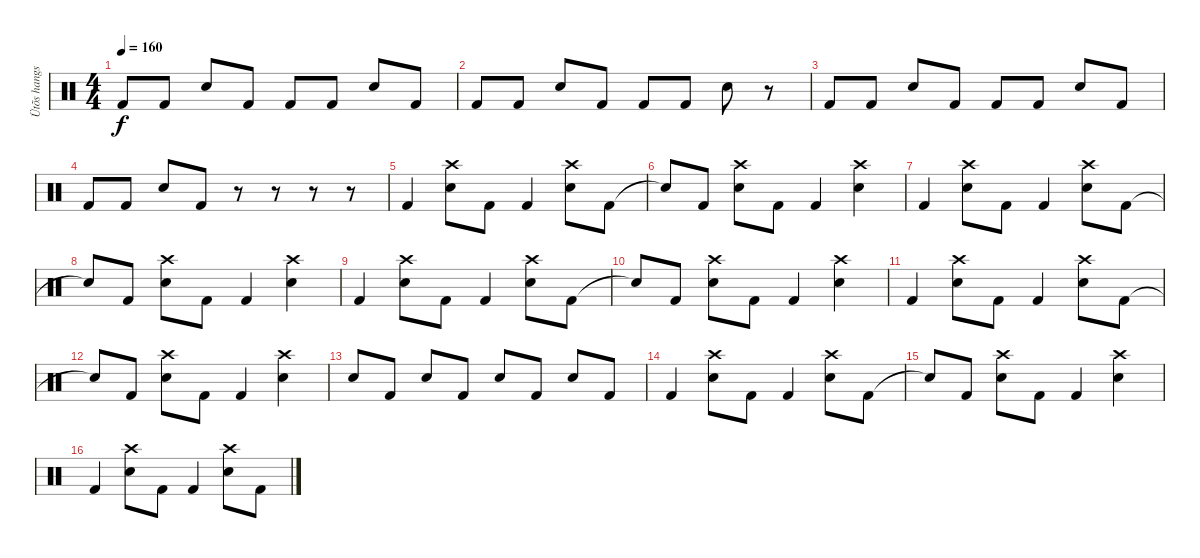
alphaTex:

\track ("Ütõs hangszer" "Ütõs hangs") {instrument percussion}
\staff {score}
\articulation defaults
\ts (4 4)
\tempo 160
\clef neutral
\ks c "Kick (hit) 2".8{dy f} "Kick (hit) 2".8 "Electric Snare (hit)".8 "Kick (hit) 2".8 "Kick (hit) 2".8 "Kick (hit) 2".8 "Electric Snare (hit)".8 "Kick (hit) 2".8
|
"Kick (hit) 2".8 "Kick (hit) 2".8 "Electric Snare (hit)".8 "Kick (hit) 2".8 "Kick (hit) 2".8 "Kick (hit) 2".8 "Electric Snare (hit)".8 r.8 |
"Kick (hit) 2".8 "Kick (hit) 2".8 "Electric Snare (hit)".8 "Kick (hit) 2".8 "Kick (hit) 2".8 "Kick (hit) 2".8 "Electric Snare (hit)".8 "Kick (hit) 2".8 |
"Kick (hit) 2".8 "Kick (hit) 2".8 "Electric Snare (hit)".8 "Kick (hit) 2".8 r.8 r.8 r.8 r.8 |
"Kick (hit) 2".4 ("Crash high (hit)" "Electric Snare (hit)").8 "Kick (hit) 2".8 "Kick (hit) 2".4 ("Crash high (hit)" "Electric Snare (hit)").8 "Kick (hit) 2".8 |
"Snare (hit)"{t}.8 "Kick (hit) 2".8 ("Crash high (hit)" "Electric Snare (hit)").8 "Kick (hit) 2".8 "Kick (hit) 2".4 ("Crash high (hit)" "Electric Snare (hit)").4 |
"Kick (hit) 2".4 ("Crash high (hit)" "Electric Snare (hit)").8 "Kick (hit) 2".8 "Kick (hit) 2".4 ("Crash high (hit)" "Electric Snare (hit)").8 "Kick (hit) 2".8 |
"Snare (hit)"{t}.8 "Kick (hit) 2".8 ("Crash high (hit)" "Electric Snare (hit)").8 "Kick (hit) 2".8 "Kick (hit) 2".4 ("Crash high (hit)" "Electric Snare (hit)").4 |
"Kick (hit) 2".4 ("Crash high (hit)" "Electric Snare (hit)").8 "Kick (hit) 2".8 "Kick (hit) 2".4 ("Crash high (hit)" "Electric Snare (hit)").8 "Kick (hit) 2".8 |
"Snare (hit)"{t}.8 "Kick (hit) 2".8 ("Crash high (hit)" "Electric Snare (hit)").8 "Kick (hit) 2".8 "Kick (hit) 2".4 ("Crash high (hit)" "Electric Snare (hit)").4 |
"Kick (hit) 2".4 ("Crash high (hit)" "Electric Snare (hit)").8 "Kick (hit) 2".8 "Kick (hit) 2".4 ("Crash high (hit)" "Electric Snare (hit)").8 "Kick (hit) 2".8 |
"Snare (hit)"{t}.8 "Kick (hit) 2".8 ("Crash high (hit)" "Electric Snare (hit)").8 "Kick (hit) 2".8 "Kick (hit) 2".4 ("Crash high (hit)" "Electric Snare (hit)").4 |
"Electric Snare (hit)".8 "Kick (hit) 2".8 "Electric Snare (hit)".8 "Kick (hit) 2".8 "Electric Snare (hit)".8 "Kick (hit) 2".8 "Electric Snare (hit)".8 "Kick (hit) 2".8 |
"Kick (hit) 2".4 ("Crash high (hit)" "Electric Snare (hit)").8 "Kick (hit) 2".8 "Kick (hit) 2".4 ("Crash high (hit)" "Electric Snare (hit)").8 "Kick (hit) 2".8 |
"Snare (hit)"{t}.8 "Kick (hit) 2".8 ("Crash high (hit)" "Electric Snare (hit)").8 "Kick (hit) 2".8 "Kick (hit) 2".4 ("Crash high (hit)" "Electric Snare (hit)").4 |
"Kick (hit) 2".4 ("Crash high (hit)" "Electric Snare (hit)").8 "Kick (hit) 2".8 "Kick (hit) 2".4 ("Crash high (hit)" "Electric Snare (hit)").8 "Kick (hit) 2".8
